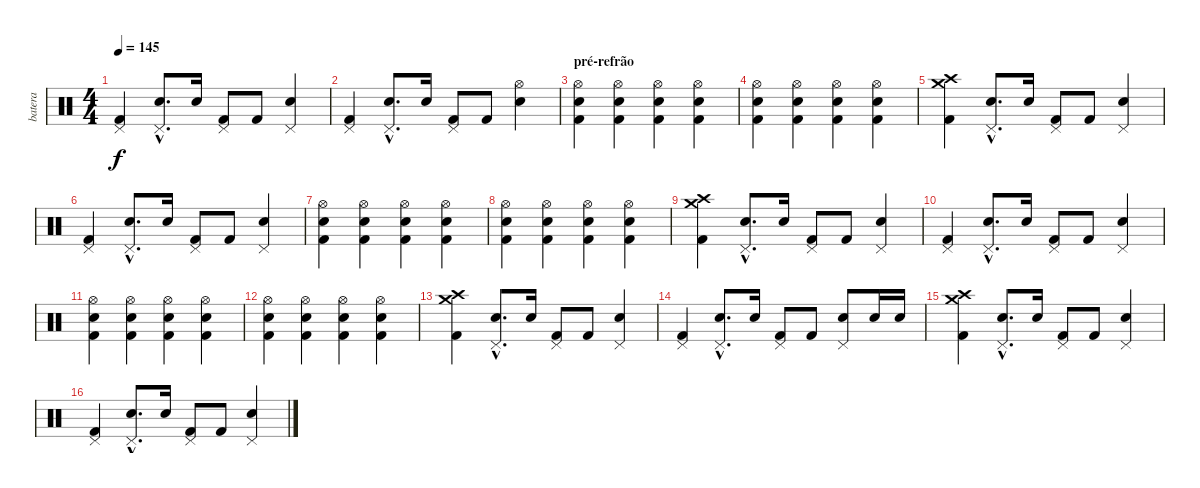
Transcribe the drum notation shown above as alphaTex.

\track ("batera" "batera") {instrument percussion}
\staff {score}
\articulation defaults
\ts (4 4)
\tempo 145
\clef neutral
\ks c
("Kick (hit) 2" "Pedal Hi-Hat (hit)").4{dy f} ("Snare (hit) 2"{hac} "Pedal Hi-Hat (hit)"{hac}).8{d} "Snare (hit) 2".16 ("Kick (hit) 2" "Pedal Hi-Hat (hit)").8 "Kick (hit) 2".8 ("Snare (hit) 2" "Pedal Hi-Hat (hit)").4 |
("Kick (hit) 2" "Pedal Hi-Hat (hit)").4 ("Snare (hit) 2"{hac} "Pedal Hi-Hat (hit)"{hac}).8{d} "Snare (hit) 2".16 ("Kick (hit) 2" "Pedal Hi-Hat (hit)").8 "Kick (hit) 2".8 ("Snare (hit) 2" "Hi-Hat (open)").4 |
\section ("" "pré-refrão")
("Snare (hit) 2" "Kick (hit) 2" "Hi-Hat (open)").4 ("Snare (hit) 2" "Kick (hit) 2" "Hi-Hat (open)").4 ("Snare (hit) 2" "Kick (hit) 2" "Hi-Hat (open)").4 ("Snare (hit) 2" "Kick (hit) 2" "Hi-Hat (open)").4 |
("Snare (hit) 2" "Kick (hit) 2" "Hi-Hat (open)").4 ("Snare (hit) 2" "Kick (hit) 2" "Hi-Hat (open)").4 ("Snare (hit) 2" "Kick (hit) 2" "Hi-Hat (open)").4 ("Snare (hit) 2" "Kick (hit) 2" "Hi-Hat (open)").4 |
("Crash high (hit)" "Crash medium (hit)" "Kick (hit) 2").4 ("Snare (hit) 2"{hac} "Pedal Hi-Hat (hit)"{hac}).8{d} "Snare (hit) 2".16 ("Kick (hit) 2" "Pedal Hi-Hat (hit)").8 "Kick (hit) 2".8 ("Snare (hit) 2" "Pedal Hi-Hat (hit)").4 |
("Kick (hit) 2" "Pedal Hi-Hat (hit)").4 ("Snare (hit) 2"{hac} "Pedal Hi-Hat (hit)"{hac}).8{d} "Snare (hit) 2".16 ("Kick (hit) 2" "Pedal Hi-Hat (hit)").8 "Kick (hit) 2".8 ("Snare (hit) 2" "Pedal Hi-Hat (hit)").4 |
("Snare (hit) 2" "Kick (hit) 2" "Hi-Hat (open)").4 ("Snare (hit) 2" "Kick (hit) 2" "Hi-Hat (open)").4 ("Snare (hit) 2" "Kick (hit) 2" "Hi-Hat (open)").4 ("Snare (hit) 2" "Kick (hit) 2" "Hi-Hat (open)").4 |
("Snare (hit) 2" "Kick (hit) 2" "Hi-Hat (open)").4 ("Snare (hit) 2" "Kick (hit) 2" "Hi-Hat (open)").4 ("Snare (hit) 2" "Kick (hit) 2" "Hi-Hat (open)").4 ("Snare (hit) 2" "Kick (hit) 2" "Hi-Hat (open)").4 |
("Crash high (hit)" "Crash medium (hit)" "Kick (hit) 2").4 ("Snare (hit) 2"{hac} "Pedal Hi-Hat (hit)"{hac}).8{d} "Snare (hit) 2".16 ("Kick (hit) 2" "Pedal Hi-Hat (hit)").8 "Kick (hit) 2".8 ("Snare (hit) 2" "Pedal Hi-Hat (hit)").4 |
("Kick (hit) 2" "Pedal Hi-Hat (hit)").4 ("Snare (hit) 2"{hac} "Pedal Hi-Hat (hit)"{hac}).8{d} "Snare (hit) 2".16 ("Kick (hit) 2" "Pedal Hi-Hat (hit)").8 "Kick (hit) 2".8 ("Snare (hit) 2" "Pedal Hi-Hat (hit)").4 |
("Snare (hit) 2" "Kick (hit) 2" "Hi-Hat (open)").4 ("Snare (hit) 2" "Kick (hit) 2" "Hi-Hat (open)").4 ("Snare (hit) 2" "Kick (hit) 2" "Hi-Hat (open)").4 ("Snare (hit) 2" "Kick (hit) 2" "Hi-Hat (open)").4 |
("Snare (hit) 2" "Kick (hit) 2" "Hi-Hat (open)").4 ("Snare (hit) 2" "Kick (hit) 2" "Hi-Hat (open)").4 ("Snare (hit) 2" "Kick (hit) 2" "Hi-Hat (open)").4 ("Snare (hit) 2" "Kick (hit) 2" "Hi-Hat (open)").4 |
("Crash high (hit)" "Crash medium (hit)" "Kick (hit) 2").4 ("Snare (hit) 2"{hac} "Pedal Hi-Hat (hit)"{hac}).8{d} "Snare (hit) 2".16 ("Kick (hit) 2" "Pedal Hi-Hat (hit)").8 "Kick (hit) 2".8 ("Snare (hit) 2" "Pedal Hi-Hat (hit)").4 |
("Kick (hit) 2" "Pedal Hi-Hat (hit)").4 ("Snare (hit) 2"{hac} "Pedal Hi-Hat (hit)"{hac}).8{d} "Snare (hit) 2".16 ("Kick (hit) 2" "Pedal Hi-Hat (hit)").8 "Kick (hit) 2".8 ("Snare (hit) 2" "Pedal Hi-Hat (hit)").8 "Snare (hit) 2".16 "Snare (hit) 2".16 |
("Crash high (hit)" "Crash medium (hit)" "Kick (hit) 2").4 ("Snare (hit) 2"{hac} "Pedal Hi-Hat (hit)"{hac}).8{d} "Snare (hit) 2".16 ("Kick (hit) 2" "Pedal Hi-Hat (hit)").8 "Kick (hit) 2".8 ("Snare (hit) 2" "Pedal Hi-Hat (hit)").4 |
("Kick (hit) 2" "Pedal Hi-Hat (hit)").4 ("Snare (hit) 2"{hac} "Pedal Hi-Hat (hit)"{hac}).8{d} "Snare (hit) 2".16 ("Kick (hit) 2" "Pedal Hi-Hat (hit)").8 "Kick (hit) 2".8 ("Snare (hit) 2" "Pedal Hi-Hat (hit)").4
